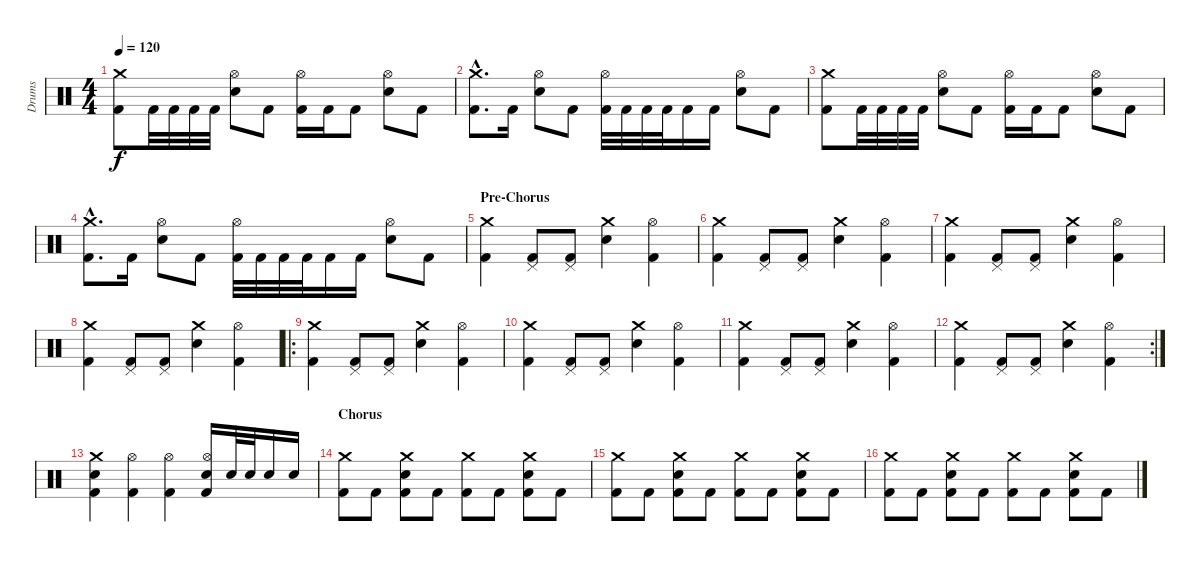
\track ("Drums" "Drums") {instrument percussion}
\staff {score}
\articulation defaults
\ts (4 4)
\tempo 120
\clef neutral
\ks c
("Crash medium (hit)" "Kick (hit) 2").8{dy f} "Kick (hit) 2".32 "Kick (hit) 2".32 "Kick (hit) 2".32 "Kick (hit) 2".32 ("Hi-Hat (open)" "Electric Snare (hit)").8 "Kick (hit) 2".8 ("Hi-Hat (open)" "Kick (hit) 2").16 "Kick (hit) 2".16 "Kick (hit) 2".8 ("Hi-Hat (open)" "Electric Snare (hit)").8 "Kick (hit) 2".8 |
("Crash medium (hit)"{hac} "Kick (hit) 2"{hac}).8{d} "Kick (hit) 2".16 ("Hi-Hat (open)" "Electric Snare (hit)").8 "Kick (hit) 2".8 ("Hi-Hat (open)" "Kick (hit) 2").32 "Kick (hit) 2".32 "Kick (hit) 2".32 "Kick (hit) 2".32 "Kick (hit) 2".16 "Kick (hit) 2".16 ("Hi-Hat (open)" "Electric Snare (hit)").8 "Kick (hit) 2".8 |
("Crash medium (hit)" "Kick (hit) 2").8 "Kick (hit) 2".32 "Kick (hit) 2".32 "Kick (hit) 2".32 "Kick (hit) 2".32 ("Hi-Hat (open)" "Electric Snare (hit)").8 "Kick (hit) 2".8 ("Hi-Hat (open)" "Kick (hit) 2").16 "Kick (hit) 2".16 "Kick (hit) 2".8 ("Hi-Hat (open)" "Electric Snare (hit)").8 "Kick (hit) 2".8 |
("Crash medium (hit)"{hac} "Kick (hit) 2"{hac}).8{d} "Kick (hit) 2".16 ("Hi-Hat (open)" "Electric Snare (hit)").8 "Kick (hit) 2".8 ("Hi-Hat (open)" "Kick (hit) 2").32 "Kick (hit) 2".32 "Kick (hit) 2".32 "Kick (hit) 2".32 "Kick (hit) 2".16 "Kick (hit) 2".16 ("Hi-Hat (open)" "Electric Snare (hit)").8 "Kick (hit) 2".8 |
\section ("" "Pre-Chorus")
("Crash medium (hit)" "Kick (hit) 2").4 ("Pedal Hi-Hat (hit)" "Kick (hit) 2").8 ("Pedal Hi-Hat (hit)" "Kick (hit) 2").8 ("Crash medium (hit)" "Electric Snare (hit)").4 ("Hi-Hat (open)" "Kick (hit) 2").4 |
("Crash medium (hit)" "Kick (hit) 2").4 ("Pedal Hi-Hat (hit)" "Kick (hit) 2").8 ("Pedal Hi-Hat (hit)" "Kick (hit) 2").8 ("Crash medium (hit)" "Electric Snare (hit)").4 ("Hi-Hat (open)" "Kick (hit) 2").4 |
("Crash medium (hit)" "Kick (hit) 2").4 ("Pedal Hi-Hat (hit)" "Kick (hit) 2").8 ("Pedal Hi-Hat (hit)" "Kick (hit) 2").8 ("Crash medium (hit)" "Electric Snare (hit)").4 ("Hi-Hat (open)" "Kick (hit) 2").4 |
("Crash medium (hit)" "Kick (hit) 2").4 ("Pedal Hi-Hat (hit)" "Kick (hit) 2").8 ("Pedal Hi-Hat (hit)" "Kick (hit) 2").8 ("Crash medium (hit)" "Electric Snare (hit)").4 ("Hi-Hat (open)" "Kick (hit) 2").4 |
\ro
("Crash medium (hit)" "Kick (hit) 2").4 ("Pedal Hi-Hat (hit)" "Kick (hit) 2").8 ("Pedal Hi-Hat (hit)" "Kick (hit) 2").8 ("Crash medium (hit)" "Electric Snare (hit)").4 ("Hi-Hat (open)" "Kick (hit) 2").4 |
("Crash medium (hit)" "Kick (hit) 2").4 ("Pedal Hi-Hat (hit)" "Kick (hit) 2").8 ("Pedal Hi-Hat (hit)" "Kick (hit) 2").8 ("Crash medium (hit)" "Electric Snare (hit)").4 ("Hi-Hat (open)" "Kick (hit) 2").4 |
("Crash medium (hit)" "Kick (hit) 2").4 ("Pedal Hi-Hat (hit)" "Kick (hit) 2").8 ("Pedal Hi-Hat (hit)" "Kick (hit) 2").8 ("Crash medium (hit)" "Electric Snare (hit)").4 ("Hi-Hat (open)" "Kick (hit) 2").4 |
\rc 2
("Crash medium (hit)" "Kick (hit) 2").4 ("Pedal Hi-Hat (hit)" "Kick (hit) 2").8 ("Pedal Hi-Hat (hit)" "Kick (hit) 2").8 ("Crash medium (hit)" "Electric Snare (hit)").4 ("Hi-Hat (open)" "Kick (hit) 2").4 |
("Crash medium (hit)" "Electric Snare (hit)" "Kick (hit) 2").4 ("Hi-Hat (open)" "Kick (hit) 2").4 ("Hi-Hat (open)" "Kick (hit) 2").4 ("Hi-Hat (open)" "Electric Snare (hit)" "Kick (hit) 2").16 "Electric Snare (hit)".32 "Electric Snare (hit)".32 "Electric Snare (hit)".16 "Electric Snare (hit)".16 |
\section ("" "Chorus ")
("Crash medium (hit)" "Kick (hit) 2").8 "Kick (hit) 2".8 ("Crash medium (hit)" "Electric Snare (hit)" "Kick (hit) 2").8 "Kick (hit) 2".8 ("Crash medium (hit)" "Kick (hit) 2").8 "Kick (hit) 2".8 ("Crash medium (hit)" "Electric Snare (hit)" "Kick (hit) 2").8 "Kick (hit) 2".8 |
("Crash medium (hit)" "Kick (hit) 2").8 "Kick (hit) 2".8 ("Crash medium (hit)" "Electric Snare (hit)" "Kick (hit) 2").8 "Kick (hit) 2".8 ("Crash medium (hit)" "Kick (hit) 2").8 "Kick (hit) 2".8 ("Crash medium (hit)" "Electric Snare (hit)" "Kick (hit) 2").8 "Kick (hit) 2".8 |
("Crash medium (hit)" "Kick (hit) 2").8 "Kick (hit) 2".8 ("Crash medium (hit)" "Electric Snare (hit)" "Kick (hit) 2").8 "Kick (hit) 2".8 ("Crash medium (hit)" "Kick (hit) 2").8 "Kick (hit) 2".8 ("Crash medium (hit)" "Electric Snare (hit)" "Kick (hit) 2").8 "Kick (hit) 2".8
